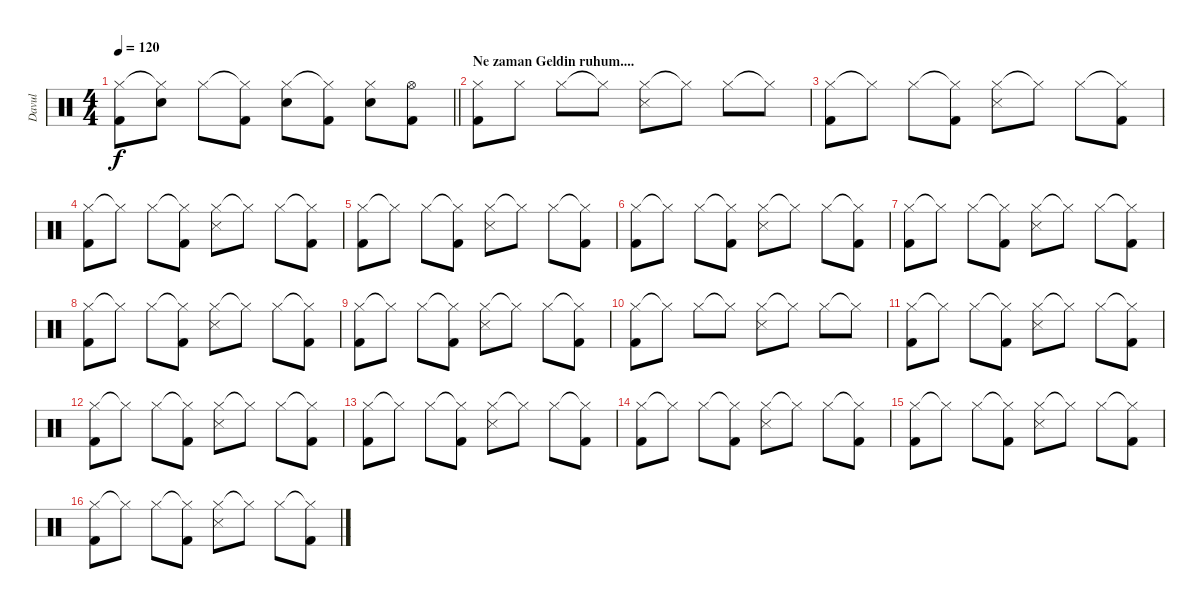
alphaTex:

\track ("Davul" "Davul") {instrument percussion}
\staff {score}
\articulation defaults
\ts (4 4)
\tempo 120
\clef neutral
\barLineRight lightlight
\ks c
("Hi-Hat (closed)" "Kick (hit) 2").8{dy f} ("Hi-Hat (closed)"{t} "Snare (hit) 2").8 "Hi-Hat (closed)".8 ("Hi-Hat (closed)"{t} "Kick (hit) 2").8 ("Hi-Hat (closed)" "Snare (hit) 2").8 ("Hi-Hat (closed)"{t} "Kick (hit) 2").8 ("Hi-Hat (closed)" "Snare (hit) 2").8 ("Hi-Hat (open)" "Kick (hit) 2").8 |
\section ("" "Ne zaman Geldin ruhum....")
("Hi-Hat (closed)" "Kick (hit) 2").8 "Hi-Hat (closed)".8 "Hi-Hat (closed)".8 "Hi-Hat (closed)"{t}.8 ("Hi-Hat (closed)" "Snare (side stick) 3").8 "Hi-Hat (closed)"{t}.8 "Hi-Hat (closed)".8 "Hi-Hat (closed)"{t}.8 |
("Hi-Hat (closed)" "Kick (hit) 2").8 "Hi-Hat (closed)"{t}.8 "Hi-Hat (closed)".8 ("Hi-Hat (closed)"{t} "Kick (hit) 2").8 ("Hi-Hat (closed)" "Snare (side stick) 3").8 "Hi-Hat (closed)"{t}.8 "Hi-Hat (closed)".8 ("Hi-Hat (closed)"{t} "Kick (hit) 2").8 |
("Hi-Hat (closed)" "Kick (hit) 2").8 "Hi-Hat (closed)"{t}.8 "Hi-Hat (closed)".8 ("Hi-Hat (closed)"{t} "Kick (hit) 2").8 ("Hi-Hat (closed)" "Snare (side stick) 3").8 "Hi-Hat (closed)"{t}.8 "Hi-Hat (closed)".8 ("Hi-Hat (closed)"{t} "Kick (hit) 2").8 |
("Hi-Hat (closed)" "Kick (hit) 2").8 "Hi-Hat (closed)"{t}.8 "Hi-Hat (closed)".8 ("Hi-Hat (closed)"{t} "Kick (hit) 2").8 ("Hi-Hat (closed)" "Snare (side stick) 3").8 "Hi-Hat (closed)"{t}.8 "Hi-Hat (closed)".8 ("Hi-Hat (closed)"{t} "Kick (hit) 2").8 |
("Hi-Hat (closed)" "Kick (hit) 2").8 "Hi-Hat (closed)"{t}.8 "Hi-Hat (closed)".8 ("Hi-Hat (closed)"{t} "Kick (hit) 2").8 ("Hi-Hat (closed)" "Snare (side stick) 3").8 "Hi-Hat (closed)"{t}.8 "Hi-Hat (closed)".8 ("Hi-Hat (closed)"{t} "Kick (hit) 2").8 |
("Hi-Hat (closed)" "Kick (hit) 2").8 "Hi-Hat (closed)"{t}.8 "Hi-Hat (closed)".8 ("Hi-Hat (closed)"{t} "Kick (hit) 2").8 ("Hi-Hat (closed)" "Snare (side stick) 3").8 "Hi-Hat (closed)"{t}.8 "Hi-Hat (closed)".8 ("Hi-Hat (closed)"{t} "Kick (hit) 2").8 |
("Hi-Hat (closed)" "Kick (hit) 2").8 "Hi-Hat (closed)"{t}.8 "Hi-Hat (closed)".8 ("Hi-Hat (closed)"{t} "Kick (hit) 2").8 ("Hi-Hat (closed)" "Snare (side stick) 3").8 "Hi-Hat (closed)"{t}.8 "Hi-Hat (closed)".8 ("Hi-Hat (closed)"{t} "Kick (hit) 2").8 |
("Hi-Hat (closed)" "Kick (hit) 2").8 "Hi-Hat (closed)"{t}.8 "Hi-Hat (closed)".8 ("Hi-Hat (closed)"{t} "Kick (hit) 2").8 ("Hi-Hat (closed)" "Snare (side stick) 3").8 "Hi-Hat (closed)"{t}.8 "Hi-Hat (closed)".8 ("Hi-Hat (closed)"{t} "Kick (hit) 2").8 |
("Hi-Hat (closed)" "Kick (hit) 2").8 "Hi-Hat (closed)"{t}.8 "Hi-Hat (closed)".8 "Hi-Hat (closed)"{t}.8 ("Hi-Hat (closed)" "Snare (side stick) 3").8 "Hi-Hat (closed)"{t}.8 "Hi-Hat (closed)".8 "Hi-Hat (closed)"{t}.8 |
("Hi-Hat (closed)" "Kick (hit) 2").8 "Hi-Hat (closed)"{t}.8 "Hi-Hat (closed)".8 ("Hi-Hat (closed)"{t} "Kick (hit) 2").8 ("Hi-Hat (closed)" "Snare (side stick) 3").8 "Hi-Hat (closed)"{t}.8 "Hi-Hat (closed)".8 ("Hi-Hat (closed)"{t} "Kick (hit) 2").8 |
("Hi-Hat (closed)" "Kick (hit) 2").8 "Hi-Hat (closed)"{t}.8 "Hi-Hat (closed)".8 ("Hi-Hat (closed)"{t} "Kick (hit) 2").8 ("Hi-Hat (closed)" "Snare (side stick) 3").8 "Hi-Hat (closed)"{t}.8 "Hi-Hat (closed)".8 ("Hi-Hat (closed)"{t} "Kick (hit) 2").8 |
("Hi-Hat (closed)" "Kick (hit) 2").8 "Hi-Hat (closed)"{t}.8 "Hi-Hat (closed)".8 ("Hi-Hat (closed)"{t} "Kick (hit) 2").8 ("Hi-Hat (closed)" "Snare (side stick) 3").8 "Hi-Hat (closed)"{t}.8 "Hi-Hat (closed)".8 ("Hi-Hat (closed)"{t} "Kick (hit) 2").8 |
("Hi-Hat (closed)" "Kick (hit) 2").8 "Hi-Hat (closed)"{t}.8 "Hi-Hat (closed)".8 ("Hi-Hat (closed)"{t} "Kick (hit) 2").8 ("Hi-Hat (closed)" "Snare (side stick) 3").8 "Hi-Hat (closed)"{t}.8 "Hi-Hat (closed)".8 ("Hi-Hat (closed)"{t} "Kick (hit) 2").8 |
("Hi-Hat (closed)" "Kick (hit) 2").8 "Hi-Hat (closed)"{t}.8 "Hi-Hat (closed)".8 ("Hi-Hat (closed)"{t} "Kick (hit) 2").8 ("Hi-Hat (closed)" "Snare (side stick) 3").8 "Hi-Hat (closed)"{t}.8 "Hi-Hat (closed)".8 ("Hi-Hat (closed)"{t} "Kick (hit) 2").8 |
("Hi-Hat (closed)" "Kick (hit) 2").8 "Hi-Hat (closed)"{t}.8 "Hi-Hat (closed)".8 ("Hi-Hat (closed)"{t} "Kick (hit) 2").8 ("Hi-Hat (closed)" "Snare (side stick) 3").8 "Hi-Hat (closed)"{t}.8 "Hi-Hat (closed)".8 ("Hi-Hat (closed)"{t} "Kick (hit) 2").8
